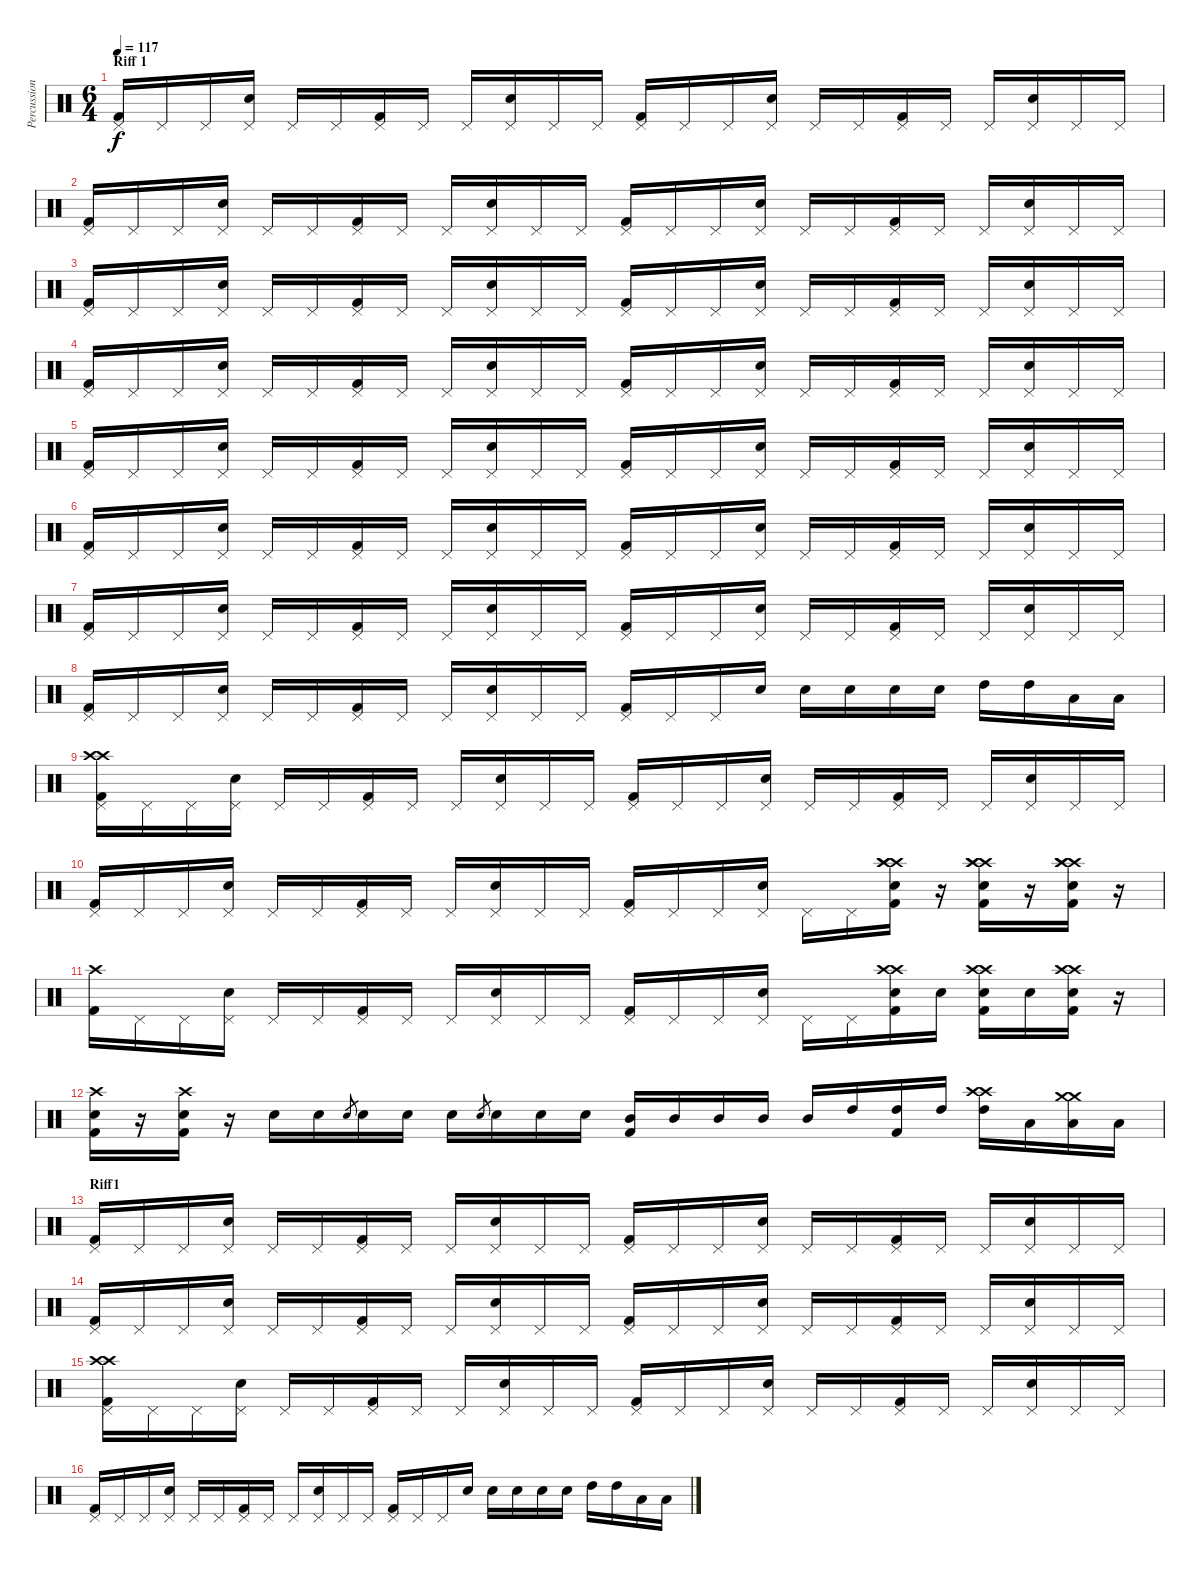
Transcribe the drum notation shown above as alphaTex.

\track ("Percussions" "Percussion") {instrument percussion}
\staff {score}
\articulation defaults
\ts (6 4)
\section ("" "Riff 1 ")
\tempo 117
\clef neutral
\ks c
("Pedal Hi-Hat (hit)" "Kick (hit) 2").16{dy f} "Pedal Hi-Hat (hit)".16 "Pedal Hi-Hat (hit)".16 ("Pedal Hi-Hat (hit)" "Electric Snare (hit)").16 "Pedal Hi-Hat (hit)".16 "Pedal Hi-Hat (hit)".16 ("Pedal Hi-Hat (hit)" "Kick (hit) 2").16 "Pedal Hi-Hat (hit)".16 "Pedal Hi-Hat (hit)".16 ("Pedal Hi-Hat (hit)" "Electric Snare (hit)").16 "Pedal Hi-Hat (hit)".16 "Pedal Hi-Hat (hit)".16 ("Pedal Hi-Hat (hit)" "Kick (hit) 2").16 "Pedal Hi-Hat (hit)".16 "Pedal Hi-Hat (hit)".16 ("Pedal Hi-Hat (hit)" "Electric Snare (hit)").16 "Pedal Hi-Hat (hit)".16 "Pedal Hi-Hat (hit)".16 ("Pedal Hi-Hat (hit)" "Kick (hit) 2").16 "Pedal Hi-Hat (hit)".16 "Pedal Hi-Hat (hit)".16 ("Pedal Hi-Hat (hit)" "Electric Snare (hit)").16 "Pedal Hi-Hat (hit)".16 "Pedal Hi-Hat (hit)".16 |
("Pedal Hi-Hat (hit)" "Kick (hit) 2").16 "Pedal Hi-Hat (hit)".16 "Pedal Hi-Hat (hit)".16 ("Pedal Hi-Hat (hit)" "Electric Snare (hit)").16 "Pedal Hi-Hat (hit)".16 "Pedal Hi-Hat (hit)".16 ("Pedal Hi-Hat (hit)" "Kick (hit) 2").16 "Pedal Hi-Hat (hit)".16 "Pedal Hi-Hat (hit)".16 ("Pedal Hi-Hat (hit)" "Electric Snare (hit)").16 "Pedal Hi-Hat (hit)".16 "Pedal Hi-Hat (hit)".16 ("Pedal Hi-Hat (hit)" "Kick (hit) 2").16 "Pedal Hi-Hat (hit)".16 "Pedal Hi-Hat (hit)".16 ("Pedal Hi-Hat (hit)" "Electric Snare (hit)").16 "Pedal Hi-Hat (hit)".16 "Pedal Hi-Hat (hit)".16 ("Pedal Hi-Hat (hit)" "Kick (hit) 2").16 "Pedal Hi-Hat (hit)".16 "Pedal Hi-Hat (hit)".16 ("Pedal Hi-Hat (hit)" "Electric Snare (hit)").16 "Pedal Hi-Hat (hit)".16 "Pedal Hi-Hat (hit)".16 |
("Pedal Hi-Hat (hit)" "Kick (hit) 2").16 "Pedal Hi-Hat (hit)".16 "Pedal Hi-Hat (hit)".16 ("Pedal Hi-Hat (hit)" "Electric Snare (hit)").16 "Pedal Hi-Hat (hit)".16 "Pedal Hi-Hat (hit)".16 ("Pedal Hi-Hat (hit)" "Kick (hit) 2").16 "Pedal Hi-Hat (hit)".16 "Pedal Hi-Hat (hit)".16 ("Pedal Hi-Hat (hit)" "Electric Snare (hit)").16 "Pedal Hi-Hat (hit)".16 "Pedal Hi-Hat (hit)".16 ("Pedal Hi-Hat (hit)" "Kick (hit) 2").16 "Pedal Hi-Hat (hit)".16 "Pedal Hi-Hat (hit)".16 ("Pedal Hi-Hat (hit)" "Electric Snare (hit)").16 "Pedal Hi-Hat (hit)".16 "Pedal Hi-Hat (hit)".16 ("Pedal Hi-Hat (hit)" "Kick (hit) 2").16 "Pedal Hi-Hat (hit)".16 "Pedal Hi-Hat (hit)".16 ("Pedal Hi-Hat (hit)" "Electric Snare (hit)").16 "Pedal Hi-Hat (hit)".16 "Pedal Hi-Hat (hit)".16 |
("Pedal Hi-Hat (hit)" "Kick (hit) 2").16 "Pedal Hi-Hat (hit)".16 "Pedal Hi-Hat (hit)".16 ("Pedal Hi-Hat (hit)" "Electric Snare (hit)").16 "Pedal Hi-Hat (hit)".16 "Pedal Hi-Hat (hit)".16 ("Pedal Hi-Hat (hit)" "Kick (hit) 2").16 "Pedal Hi-Hat (hit)".16 "Pedal Hi-Hat (hit)".16 ("Pedal Hi-Hat (hit)" "Electric Snare (hit)").16 "Pedal Hi-Hat (hit)".16 "Pedal Hi-Hat (hit)".16 ("Pedal Hi-Hat (hit)" "Kick (hit) 2").16 "Pedal Hi-Hat (hit)".16 "Pedal Hi-Hat (hit)".16 ("Pedal Hi-Hat (hit)" "Electric Snare (hit)").16 "Pedal Hi-Hat (hit)".16 "Pedal Hi-Hat (hit)".16 ("Pedal Hi-Hat (hit)" "Kick (hit) 2").16 "Pedal Hi-Hat (hit)".16 "Pedal Hi-Hat (hit)".16 ("Pedal Hi-Hat (hit)" "Electric Snare (hit)").16 "Pedal Hi-Hat (hit)".16 "Pedal Hi-Hat (hit)".16 |
("Pedal Hi-Hat (hit)" "Kick (hit) 2").16 "Pedal Hi-Hat (hit)".16 "Pedal Hi-Hat (hit)".16 ("Pedal Hi-Hat (hit)" "Electric Snare (hit)").16 "Pedal Hi-Hat (hit)".16 "Pedal Hi-Hat (hit)".16 ("Pedal Hi-Hat (hit)" "Kick (hit) 2").16 "Pedal Hi-Hat (hit)".16 "Pedal Hi-Hat (hit)".16 ("Pedal Hi-Hat (hit)" "Electric Snare (hit)").16 "Pedal Hi-Hat (hit)".16 "Pedal Hi-Hat (hit)".16 ("Pedal Hi-Hat (hit)" "Kick (hit) 2").16 "Pedal Hi-Hat (hit)".16 "Pedal Hi-Hat (hit)".16 ("Pedal Hi-Hat (hit)" "Electric Snare (hit)").16 "Pedal Hi-Hat (hit)".16 "Pedal Hi-Hat (hit)".16 ("Pedal Hi-Hat (hit)" "Kick (hit) 2").16 "Pedal Hi-Hat (hit)".16 "Pedal Hi-Hat (hit)".16 ("Pedal Hi-Hat (hit)" "Electric Snare (hit)").16 "Pedal Hi-Hat (hit)".16 "Pedal Hi-Hat (hit)".16 |
("Pedal Hi-Hat (hit)" "Kick (hit) 2").16 "Pedal Hi-Hat (hit)".16 "Pedal Hi-Hat (hit)".16 ("Pedal Hi-Hat (hit)" "Electric Snare (hit)").16 "Pedal Hi-Hat (hit)".16 "Pedal Hi-Hat (hit)".16 ("Pedal Hi-Hat (hit)" "Kick (hit) 2").16 "Pedal Hi-Hat (hit)".16 "Pedal Hi-Hat (hit)".16 ("Pedal Hi-Hat (hit)" "Electric Snare (hit)").16 "Pedal Hi-Hat (hit)".16 "Pedal Hi-Hat (hit)".16 ("Pedal Hi-Hat (hit)" "Kick (hit) 2").16 "Pedal Hi-Hat (hit)".16 "Pedal Hi-Hat (hit)".16 ("Pedal Hi-Hat (hit)" "Electric Snare (hit)").16 "Pedal Hi-Hat (hit)".16 "Pedal Hi-Hat (hit)".16 ("Pedal Hi-Hat (hit)" "Kick (hit) 2").16 "Pedal Hi-Hat (hit)".16 "Pedal Hi-Hat (hit)".16 ("Pedal Hi-Hat (hit)" "Electric Snare (hit)").16 "Pedal Hi-Hat (hit)".16 "Pedal Hi-Hat (hit)".16 |
("Pedal Hi-Hat (hit)" "Kick (hit) 2").16 "Pedal Hi-Hat (hit)".16 "Pedal Hi-Hat (hit)".16 ("Pedal Hi-Hat (hit)" "Electric Snare (hit)").16 "Pedal Hi-Hat (hit)".16 "Pedal Hi-Hat (hit)".16 ("Pedal Hi-Hat (hit)" "Kick (hit) 2").16 "Pedal Hi-Hat (hit)".16 "Pedal Hi-Hat (hit)".16 ("Pedal Hi-Hat (hit)" "Electric Snare (hit)").16 "Pedal Hi-Hat (hit)".16 "Pedal Hi-Hat (hit)".16 ("Pedal Hi-Hat (hit)" "Kick (hit) 2").16 "Pedal Hi-Hat (hit)".16 "Pedal Hi-Hat (hit)".16 ("Pedal Hi-Hat (hit)" "Electric Snare (hit)").16 "Pedal Hi-Hat (hit)".16 "Pedal Hi-Hat (hit)".16 ("Pedal Hi-Hat (hit)" "Kick (hit) 2").16 "Pedal Hi-Hat (hit)".16 "Pedal Hi-Hat (hit)".16 ("Pedal Hi-Hat (hit)" "Electric Snare (hit)").16 "Pedal Hi-Hat (hit)".16 "Pedal Hi-Hat (hit)".16 |
("Pedal Hi-Hat (hit)" "Kick (hit) 2").16 "Pedal Hi-Hat (hit)".16 "Pedal Hi-Hat (hit)".16 ("Pedal Hi-Hat (hit)" "Electric Snare (hit)").16 "Pedal Hi-Hat (hit)".16 "Pedal Hi-Hat (hit)".16 ("Pedal Hi-Hat (hit)" "Kick (hit) 2").16 "Pedal Hi-Hat (hit)".16 "Pedal Hi-Hat (hit)".16 ("Pedal Hi-Hat (hit)" "Electric Snare (hit)").16 "Pedal Hi-Hat (hit)".16 "Pedal Hi-Hat (hit)".16 ("Pedal Hi-Hat (hit)" "Kick (hit) 2").16 "Pedal Hi-Hat (hit)".16 "Pedal Hi-Hat (hit)".16 "Electric Snare (hit)".16 "Electric Snare (hit)".16 "Electric Snare (hit)".16 "Electric Snare (hit)".16 "Electric Snare (hit)".16 "High Tom (hit)".16 "High Tom (hit)".16 "Low Tom (hit)".16 "Low Tom (hit)".16 |
("Crash high (hit)" "Crash high (hit)" "Pedal Hi-Hat (hit)" "Kick (hit) 2").16 "Pedal Hi-Hat (hit)".16 "Pedal Hi-Hat (hit)".16 ("Pedal Hi-Hat (hit)" "Electric Snare (hit)").16 "Pedal Hi-Hat (hit)".16 "Pedal Hi-Hat (hit)".16 ("Pedal Hi-Hat (hit)" "Kick (hit) 2").16 "Pedal Hi-Hat (hit)".16 "Pedal Hi-Hat (hit)".16 ("Pedal Hi-Hat (hit)" "Electric Snare (hit)").16 "Pedal Hi-Hat (hit)".16 "Pedal Hi-Hat (hit)".16 ("Pedal Hi-Hat (hit)" "Kick (hit) 2").16 "Pedal Hi-Hat (hit)".16 "Pedal Hi-Hat (hit)".16 ("Pedal Hi-Hat (hit)" "Electric Snare (hit)").16 "Pedal Hi-Hat (hit)".16 "Pedal Hi-Hat (hit)".16 ("Pedal Hi-Hat (hit)" "Kick (hit) 2").16 "Pedal Hi-Hat (hit)".16 "Pedal Hi-Hat (hit)".16 ("Pedal Hi-Hat (hit)" "Electric Snare (hit)").16 "Pedal Hi-Hat (hit)".16 "Pedal Hi-Hat (hit)".16 |
("Pedal Hi-Hat (hit)" "Kick (hit) 2").16 "Pedal Hi-Hat (hit)".16 "Pedal Hi-Hat (hit)".16 ("Pedal Hi-Hat (hit)" "Electric Snare (hit)").16 "Pedal Hi-Hat (hit)".16 "Pedal Hi-Hat (hit)".16 ("Pedal Hi-Hat (hit)" "Kick (hit) 2").16 "Pedal Hi-Hat (hit)".16 "Pedal Hi-Hat (hit)".16 ("Pedal Hi-Hat (hit)" "Electric Snare (hit)").16 "Pedal Hi-Hat (hit)".16 "Pedal Hi-Hat (hit)".16 ("Pedal Hi-Hat (hit)" "Kick (hit) 2").16 "Pedal Hi-Hat (hit)".16 "Pedal Hi-Hat (hit)".16 ("Pedal Hi-Hat (hit)" "Electric Snare (hit)").16 "Pedal Hi-Hat (hit)".16 "Pedal Hi-Hat (hit)".16 ("Crash high (hit)" "Crash high (hit)" "Crash high (hit)" "Electric Snare (hit)" "Kick (hit) 2").16 r.16 ("Crash high (hit)" "Crash high (hit)" "Crash high (hit)" "Electric Snare (hit)" "Kick (hit) 2").16 r.16 ("Crash high (hit)" "Crash high (hit)" "Crash high (hit)" "Electric Snare (hit)" "Kick (hit) 2").16 r.16 |
("Crash high (hit)" "Kick (hit) 2").16 "Pedal Hi-Hat (hit)".16 "Pedal Hi-Hat (hit)".16 ("Pedal Hi-Hat (hit)" "Electric Snare (hit)").16 "Pedal Hi-Hat (hit)".16 "Pedal Hi-Hat (hit)".16 ("Pedal Hi-Hat (hit)" "Kick (hit) 2").16 "Pedal Hi-Hat (hit)".16 "Pedal Hi-Hat (hit)".16 ("Pedal Hi-Hat (hit)" "Electric Snare (hit)").16 "Pedal Hi-Hat (hit)".16 "Pedal Hi-Hat (hit)".16 ("Pedal Hi-Hat (hit)" "Kick (hit) 2").16 "Pedal Hi-Hat (hit)".16 "Pedal Hi-Hat (hit)".16 ("Pedal Hi-Hat (hit)" "Electric Snare (hit)").16 "Pedal Hi-Hat (hit)".16 "Pedal Hi-Hat (hit)".16 ("Crash high (hit)" "Crash high (hit)" "Electric Snare (hit)" "Kick (hit) 2").16 "Electric Snare (hit)".16 ("Crash high (hit)" "Crash high (hit)" "Electric Snare (hit)" "Kick (hit) 2").16 "Electric Snare (hit)".16 ("Crash high (hit)" "Crash high (hit)" "Electric Snare (hit)" "Kick (hit) 2").16 r.16 |
("Crash high (hit)" "Electric Snare (hit)" "Kick (hit) 2").16 r.16 ("Crash high (hit)" "Electric Snare (hit)" "Kick (hit) 2").16 r.16 "Electric Snare (hit)".16 "Electric Snare (hit)".16 "Electric Snare (hit)".8{gr} "Electric Snare (hit)".16 "Electric Snare (hit)".16 "Electric Snare (hit)".16 "Electric Snare (hit)".8{gr} "Electric Snare (hit)".16 "Electric Snare (hit)".16 "Electric Snare (hit)".16 ("Mid Tom (hit)" "Kick (hit) 2").16 "Mid Tom (hit)".16 "Mid Tom (hit)".16 "Mid Tom (hit)".16 "Mid Tom (hit)".16 "High Tom (hit)".16 ("High Tom (hit)" "Kick (hit) 2").16 "High Tom (hit)".16 ("Crash high (hit)" "Crash high (hit)" "High Tom (hit)").16 "Low Tom (hit)".16 ("Crash medium (hit)" "Crash medium (hit)" "Low Tom (hit)").16 "Low Tom (hit)".16 |
\section ("" "Riff1")
("Pedal Hi-Hat (hit)" "Kick (hit) 2").16 "Pedal Hi-Hat (hit)".16 "Pedal Hi-Hat (hit)".16 ("Pedal Hi-Hat (hit)" "Electric Snare (hit)").16 "Pedal Hi-Hat (hit)".16 "Pedal Hi-Hat (hit)".16 ("Pedal Hi-Hat (hit)" "Kick (hit) 2").16 "Pedal Hi-Hat (hit)".16 "Pedal Hi-Hat (hit)".16 ("Pedal Hi-Hat (hit)" "Electric Snare (hit)").16 "Pedal Hi-Hat (hit)".16 "Pedal Hi-Hat (hit)".16 ("Pedal Hi-Hat (hit)" "Kick (hit) 2").16 "Pedal Hi-Hat (hit)".16 "Pedal Hi-Hat (hit)".16 ("Pedal Hi-Hat (hit)" "Electric Snare (hit)").16 "Pedal Hi-Hat (hit)".16 "Pedal Hi-Hat (hit)".16 ("Pedal Hi-Hat (hit)" "Kick (hit) 2").16 "Pedal Hi-Hat (hit)".16 "Pedal Hi-Hat (hit)".16 ("Pedal Hi-Hat (hit)" "Electric Snare (hit)").16 "Pedal Hi-Hat (hit)".16 "Pedal Hi-Hat (hit)".16 |
("Pedal Hi-Hat (hit)" "Kick (hit) 2").16 "Pedal Hi-Hat (hit)".16 "Pedal Hi-Hat (hit)".16 ("Pedal Hi-Hat (hit)" "Electric Snare (hit)").16 "Pedal Hi-Hat (hit)".16 "Pedal Hi-Hat (hit)".16 ("Pedal Hi-Hat (hit)" "Kick (hit) 2").16 "Pedal Hi-Hat (hit)".16 "Pedal Hi-Hat (hit)".16 ("Pedal Hi-Hat (hit)" "Electric Snare (hit)").16 "Pedal Hi-Hat (hit)".16 "Pedal Hi-Hat (hit)".16 ("Pedal Hi-Hat (hit)" "Kick (hit) 2").16 "Pedal Hi-Hat (hit)".16 "Pedal Hi-Hat (hit)".16 ("Pedal Hi-Hat (hit)" "Electric Snare (hit)").16 "Pedal Hi-Hat (hit)".16 "Pedal Hi-Hat (hit)".16 ("Pedal Hi-Hat (hit)" "Kick (hit) 2").16 "Pedal Hi-Hat (hit)".16 "Pedal Hi-Hat (hit)".16 ("Pedal Hi-Hat (hit)" "Electric Snare (hit)").16 "Pedal Hi-Hat (hit)".16 "Pedal Hi-Hat (hit)".16 |
("Crash high (hit)" "Crash high (hit)" "Pedal Hi-Hat (hit)" "Kick (hit) 2").16 "Pedal Hi-Hat (hit)".16 "Pedal Hi-Hat (hit)".16 ("Pedal Hi-Hat (hit)" "Electric Snare (hit)").16 "Pedal Hi-Hat (hit)".16 "Pedal Hi-Hat (hit)".16 ("Pedal Hi-Hat (hit)" "Kick (hit) 2").16 "Pedal Hi-Hat (hit)".16 "Pedal Hi-Hat (hit)".16 ("Pedal Hi-Hat (hit)" "Electric Snare (hit)").16 "Pedal Hi-Hat (hit)".16 "Pedal Hi-Hat (hit)".16 ("Pedal Hi-Hat (hit)" "Kick (hit) 2").16 "Pedal Hi-Hat (hit)".16 "Pedal Hi-Hat (hit)".16 ("Pedal Hi-Hat (hit)" "Electric Snare (hit)").16 "Pedal Hi-Hat (hit)".16 "Pedal Hi-Hat (hit)".16 ("Pedal Hi-Hat (hit)" "Kick (hit) 2").16 "Pedal Hi-Hat (hit)".16 "Pedal Hi-Hat (hit)".16 ("Pedal Hi-Hat (hit)" "Electric Snare (hit)").16 "Pedal Hi-Hat (hit)".16 "Pedal Hi-Hat (hit)".16 |
("Pedal Hi-Hat (hit)" "Kick (hit) 2").16 "Pedal Hi-Hat (hit)".16 "Pedal Hi-Hat (hit)".16 ("Pedal Hi-Hat (hit)" "Electric Snare (hit)").16 "Pedal Hi-Hat (hit)".16 "Pedal Hi-Hat (hit)".16 ("Pedal Hi-Hat (hit)" "Kick (hit) 2").16 "Pedal Hi-Hat (hit)".16 "Pedal Hi-Hat (hit)".16 ("Pedal Hi-Hat (hit)" "Electric Snare (hit)").16 "Pedal Hi-Hat (hit)".16 "Pedal Hi-Hat (hit)".16 ("Pedal Hi-Hat (hit)" "Kick (hit) 2").16 "Pedal Hi-Hat (hit)".16 "Pedal Hi-Hat (hit)".16 "Electric Snare (hit)".16 "Electric Snare (hit)".16 "Electric Snare (hit)".16 "Electric Snare (hit)".16 "Electric Snare (hit)".16 "High Tom (hit)".16 "High Tom (hit)".16 "Low Tom (hit)".16 "Low Tom (hit)".16
